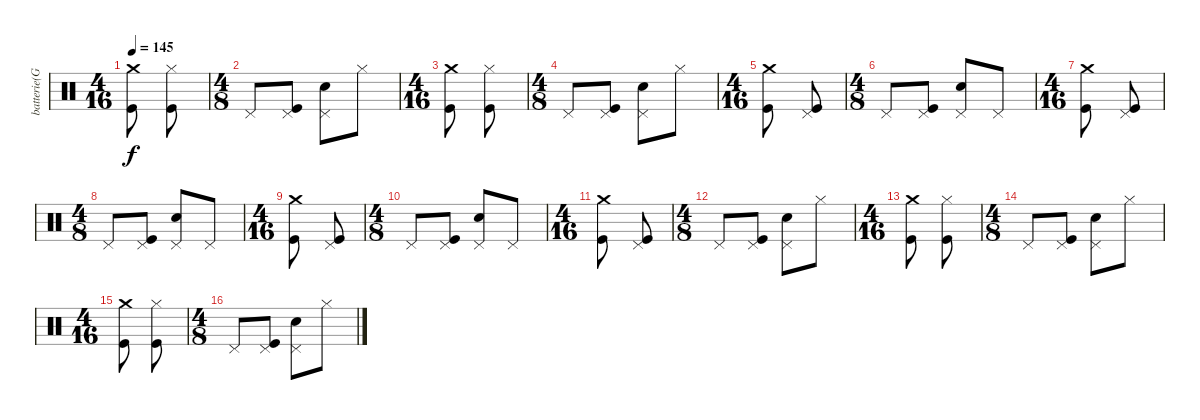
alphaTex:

\track ("batterie(Granberg)" "batterie(G") {instrument percussion}
\staff {score}
\articulation defaults
\ts (4 16)
\tempo 145
\clef neutral
\ks c
("Crash medium (hit)" "Kick (hit)").8{dy f} ("Hi-Hat (closed)" "Kick (hit)").8 |
\ts (4 8)
"Pedal Hi-Hat (hit)".8 ("Pedal Hi-Hat (hit)" "Kick (hit)").8 ("Pedal Hi-Hat (hit)" "Snare (hit) 2").8 "Hi-Hat (closed)".8 |
\ts (4 16)
("Crash medium (hit)" "Kick (hit)").8 ("Hi-Hat (closed)" "Kick (hit)").8 |
\ts (4 8)
"Pedal Hi-Hat (hit)".8 ("Pedal Hi-Hat (hit)" "Kick (hit)").8 ("Pedal Hi-Hat (hit)" "Snare (hit) 2").8 "Hi-Hat (closed)".8 |
\ts (4 16)
("Crash medium (hit)" "Kick (hit)").8 ("Pedal Hi-Hat (hit)" "Kick (hit)").8 |
\ts (4 8)
"Pedal Hi-Hat (hit)".8 ("Pedal Hi-Hat (hit)" "Kick (hit)").8 ("Pedal Hi-Hat (hit)" "Snare (hit) 2").8 "Pedal Hi-Hat (hit)".8 |
\ts (4 16)
("Crash medium (hit)" "Kick (hit)").8 ("Pedal Hi-Hat (hit)" "Kick (hit)").8 |
\ts (4 8)
"Pedal Hi-Hat (hit)".8 ("Pedal Hi-Hat (hit)" "Kick (hit)").8 ("Pedal Hi-Hat (hit)" "Snare (hit) 2").8 "Pedal Hi-Hat (hit)".8 |
\ts (4 16)
("Crash medium (hit)" "Kick (hit)").8 ("Pedal Hi-Hat (hit)" "Kick (hit)").8 |
\ts (4 8)
"Pedal Hi-Hat (hit)".8 ("Pedal Hi-Hat (hit)" "Kick (hit)").8 ("Pedal Hi-Hat (hit)" "Snare (hit) 2").8 "Pedal Hi-Hat (hit)".8 |
\ts (4 16)
("Crash medium (hit)" "Kick (hit)").8 ("Pedal Hi-Hat (hit)" "Kick (hit)").8 |
\ts (4 8)
"Pedal Hi-Hat (hit)".8 ("Pedal Hi-Hat (hit)" "Kick (hit)").8 ("Pedal Hi-Hat (hit)" "Snare (hit) 2").8 "Hi-Hat (closed)".8 |
\ts (4 16)
("Crash medium (hit)" "Kick (hit)").8 ("Hi-Hat (closed)" "Kick (hit)").8 |
\ts (4 8)
"Pedal Hi-Hat (hit)".8 ("Pedal Hi-Hat (hit)" "Kick (hit)").8 ("Pedal Hi-Hat (hit)" "Snare (hit) 2").8 "Hi-Hat (closed)".8 |
\ts (4 16)
("Crash medium (hit)" "Kick (hit)").8 ("Hi-Hat (closed)" "Kick (hit)").8 |
\ts (4 8)
"Pedal Hi-Hat (hit)".8 ("Pedal Hi-Hat (hit)" "Kick (hit)").8 ("Pedal Hi-Hat (hit)" "Snare (hit) 2").8 "Hi-Hat (closed)".8
